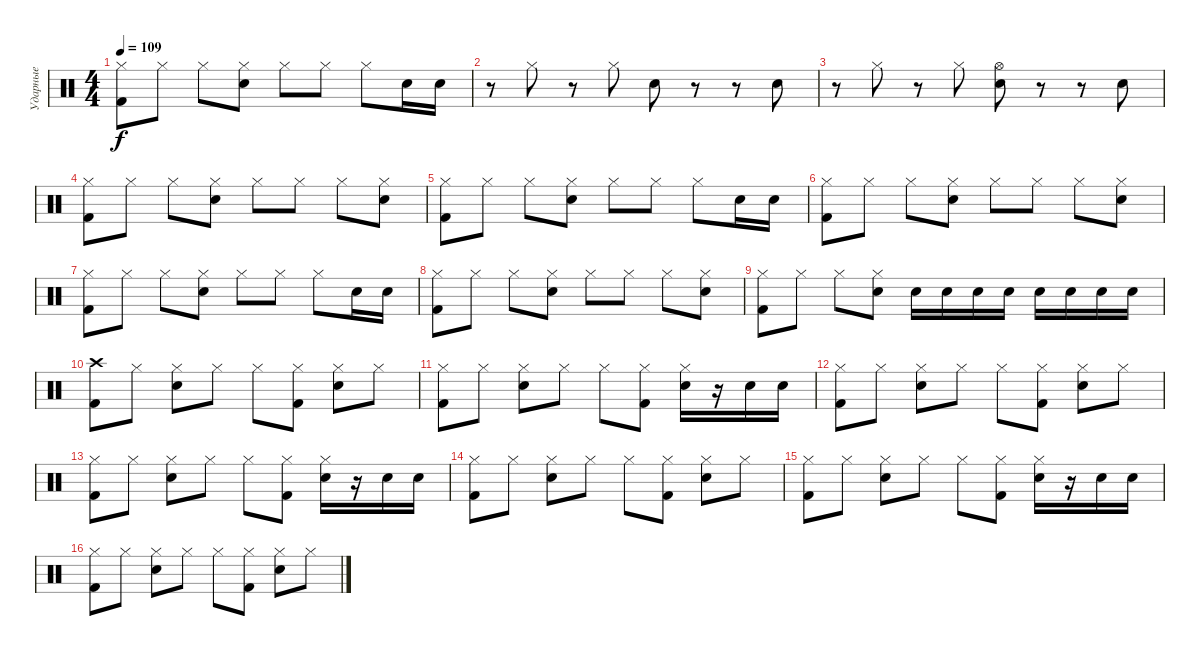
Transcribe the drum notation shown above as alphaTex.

\track ("Ударные" "Ударные") {instrument percussion}
\staff {score}
\articulation defaults
\ts (4 4)
\tempo 109
\clef neutral
\ks c
("Kick (hit) 2" "Hi-Hat (closed)").8{dy f} "Hi-Hat (closed)".8 "Hi-Hat (closed)".8 ("Electric Snare (hit)" "Hi-Hat (closed)").8 "Hi-Hat (closed)".8 "Hi-Hat (closed)".8 "Hi-Hat (closed)".8 "Electric Snare (hit)".16 "Electric Snare (hit)".16 |
r.8 "Hi-Hat (closed)".8 r.8 "Hi-Hat (closed)".8 "Electric Snare (hit)".8 r.8 r.8 "Electric Snare (hit)".8 |
r.8 "Hi-Hat (closed)".8 r.8 "Hi-Hat (closed)".8 ("Electric Snare (hit)" "Hi-Hat (open)").8 r.8 r.8 "Electric Snare (hit)".8 |
("Kick (hit) 2" "Hi-Hat (closed)").8 "Hi-Hat (closed)".8 "Hi-Hat (closed)".8 ("Electric Snare (hit)" "Hi-Hat (closed)").8 "Hi-Hat (closed)".8 "Hi-Hat (closed)".8 "Hi-Hat (closed)".8 ("Electric Snare (hit)" "Hi-Hat (closed)").8 |
("Kick (hit) 2" "Hi-Hat (closed)").8 "Hi-Hat (closed)".8 "Hi-Hat (closed)".8 ("Electric Snare (hit)" "Hi-Hat (closed)").8 "Hi-Hat (closed)".8 "Hi-Hat (closed)".8 "Hi-Hat (closed)".8 "Electric Snare (hit)".16 "Electric Snare (hit)".16 |
("Kick (hit) 2" "Hi-Hat (closed)").8 "Hi-Hat (closed)".8 "Hi-Hat (closed)".8 ("Electric Snare (hit)" "Hi-Hat (closed)").8 "Hi-Hat (closed)".8 "Hi-Hat (closed)".8 "Hi-Hat (closed)".8 ("Electric Snare (hit)" "Hi-Hat (closed)").8 |
("Kick (hit) 2" "Hi-Hat (closed)").8 "Hi-Hat (closed)".8 "Hi-Hat (closed)".8 ("Electric Snare (hit)" "Hi-Hat (closed)").8 "Hi-Hat (closed)".8 "Hi-Hat (closed)".8 "Hi-Hat (closed)".8 "Electric Snare (hit)".16 "Electric Snare (hit)".16 |
("Kick (hit) 2" "Hi-Hat (closed)").8 "Hi-Hat (closed)".8 "Hi-Hat (closed)".8 ("Electric Snare (hit)" "Hi-Hat (closed)").8 "Hi-Hat (closed)".8 "Hi-Hat (closed)".8 "Hi-Hat (closed)".8 ("Electric Snare (hit)" "Hi-Hat (closed)").8 |
("Kick (hit) 2" "Hi-Hat (closed)").8 "Hi-Hat (closed)".8 "Hi-Hat (closed)".8 ("Electric Snare (hit)" "Hi-Hat (closed)").8 "Electric Snare (hit)".16 "Electric Snare (hit)".16 "Electric Snare (hit)".16 "Electric Snare (hit)".16 "Electric Snare (hit)".16 "Electric Snare (hit)".16 "Electric Snare (hit)".16 "Electric Snare (hit)".16 |
("Kick (hit) 2" "Crash high (hit)").8 "Hi-Hat (closed)".8 ("Electric Snare (hit)" "Hi-Hat (closed)").8 "Hi-Hat (closed)".8 "Hi-Hat (closed)".8 ("Kick (hit) 2" "Hi-Hat (closed)").8 ("Electric Snare (hit)" "Hi-Hat (closed)").8 "Hi-Hat (closed)".8 |
("Kick (hit) 2" "Hi-Hat (closed)").8 "Hi-Hat (closed)".8 ("Electric Snare (hit)" "Hi-Hat (closed)").8 "Hi-Hat (closed)".8 "Hi-Hat (closed)".8 ("Kick (hit) 2" "Hi-Hat (closed)").8 ("Electric Snare (hit)" "Hi-Hat (closed)").16 r.16 "Electric Snare (hit)".16 "Electric Snare (hit)".16 |
("Kick (hit) 2" "Hi-Hat (closed)").8 "Hi-Hat (closed)".8 ("Electric Snare (hit)" "Hi-Hat (closed)").8 "Hi-Hat (closed)".8 "Hi-Hat (closed)".8 ("Kick (hit) 2" "Hi-Hat (closed)").8 ("Electric Snare (hit)" "Hi-Hat (closed)").8 "Hi-Hat (closed)".8 |
("Kick (hit) 2" "Hi-Hat (closed)").8 "Hi-Hat (closed)".8 ("Electric Snare (hit)" "Hi-Hat (closed)").8 "Hi-Hat (closed)".8 "Hi-Hat (closed)".8 ("Kick (hit) 2" "Hi-Hat (closed)").8 ("Electric Snare (hit)" "Hi-Hat (closed)").16 r.16 "Electric Snare (hit)".16 "Electric Snare (hit)".16 |
("Kick (hit) 2" "Hi-Hat (closed)").8 "Hi-Hat (closed)".8 ("Electric Snare (hit)" "Hi-Hat (closed)").8 "Hi-Hat (closed)".8 "Hi-Hat (closed)".8 ("Kick (hit) 2" "Hi-Hat (closed)").8 ("Electric Snare (hit)" "Hi-Hat (closed)").8 "Hi-Hat (closed)".8 |
("Kick (hit) 2" "Hi-Hat (closed)").8 "Hi-Hat (closed)".8 ("Electric Snare (hit)" "Hi-Hat (closed)").8 "Hi-Hat (closed)".8 "Hi-Hat (closed)".8 ("Kick (hit) 2" "Hi-Hat (closed)").8 ("Electric Snare (hit)" "Hi-Hat (closed)").16 r.16 "Electric Snare (hit)".16 "Electric Snare (hit)".16 |
("Kick (hit) 2" "Hi-Hat (closed)").8 "Hi-Hat (closed)".8 ("Electric Snare (hit)" "Hi-Hat (closed)").8 "Hi-Hat (closed)".8 "Hi-Hat (closed)".8 ("Kick (hit) 2" "Hi-Hat (closed)").8 ("Electric Snare (hit)" "Hi-Hat (closed)").8 "Hi-Hat (closed)".8
